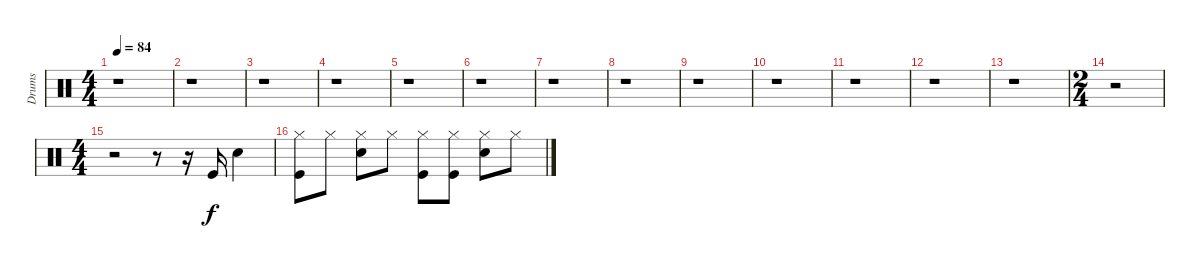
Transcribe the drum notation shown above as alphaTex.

\track ("Drums" "Drums") {instrument percussion}
\staff {score}
\articulation defaults
\ts (4 4)
\tempo 84
\clef neutral
\ks c
r.1{dy f} |
r.1 |
r.1 |
r.1 |
r.1 |
r.1 |
r.1 |
r.1 |
r.1 |
r.1 |
r.1 |
r.1 |
r.1 |
\ts (2 4)
r.2 |
\ts (4 4)
r.2 r.8 r.16 "Kick (hit)".16 "Snare (hit) 2".4 |
("Hi-Hat (closed)" "Kick (hit)").8 "Hi-Hat (closed)".8 ("Hi-Hat (closed)" "Snare (hit) 2").8 "Hi-Hat (closed)".8 ("Hi-Hat (closed)" "Kick (hit)").8 ("Hi-Hat (closed)" "Kick (hit)").8 ("Hi-Hat (closed)" "Snare (hit) 2").8 "Hi-Hat (closed)".8
